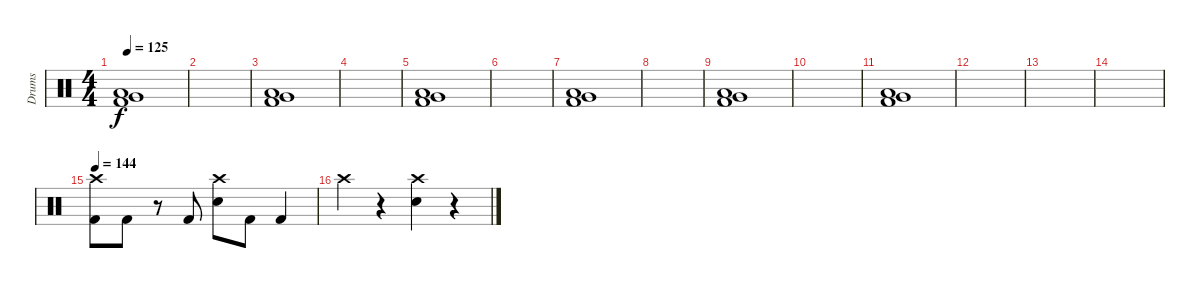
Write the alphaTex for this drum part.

\track ("Drums" "Drums") {instrument percussion}
\staff {score}
\articulation defaults
\ts (4 4)
\tempo 125
\clef neutral
\ks c
("Very Low Tom (hit)" "Low Floor Tom (hit)" "Kick (hit) 2").1{dy f volume 6} |
|
("Very Low Tom (hit)" "Low Floor Tom (hit)" "Kick (hit) 2").1{volume 7} |
|
("Very Low Tom (hit)" "Low Floor Tom (hit)" "Kick (hit) 2").1{volume 8} |
|
("Very Low Tom (hit)" "Low Floor Tom (hit)" "Kick (hit) 2").1{volume 8} |
|
("Very Low Tom (hit)" "Low Floor Tom (hit)" "Kick (hit) 2").1{volume 9} |
|
("Very Low Tom (hit)" "Low Floor Tom (hit)" "Kick (hit) 2").1{volume 8} |
|
|
|
\tempo 144
("Crash high (hit)" "Kick (hit) 2").8 "Kick (hit) 2".8 r.8 "Kick (hit) 2".8 ("Crash high (hit)" "Electric Snare (hit)").8 "Kick (hit) 2".8 "Kick (hit) 2".4 |
"Crash high (hit)".4 r.4 ("Crash high (hit)" "Electric Snare (hit)").4 r.4
